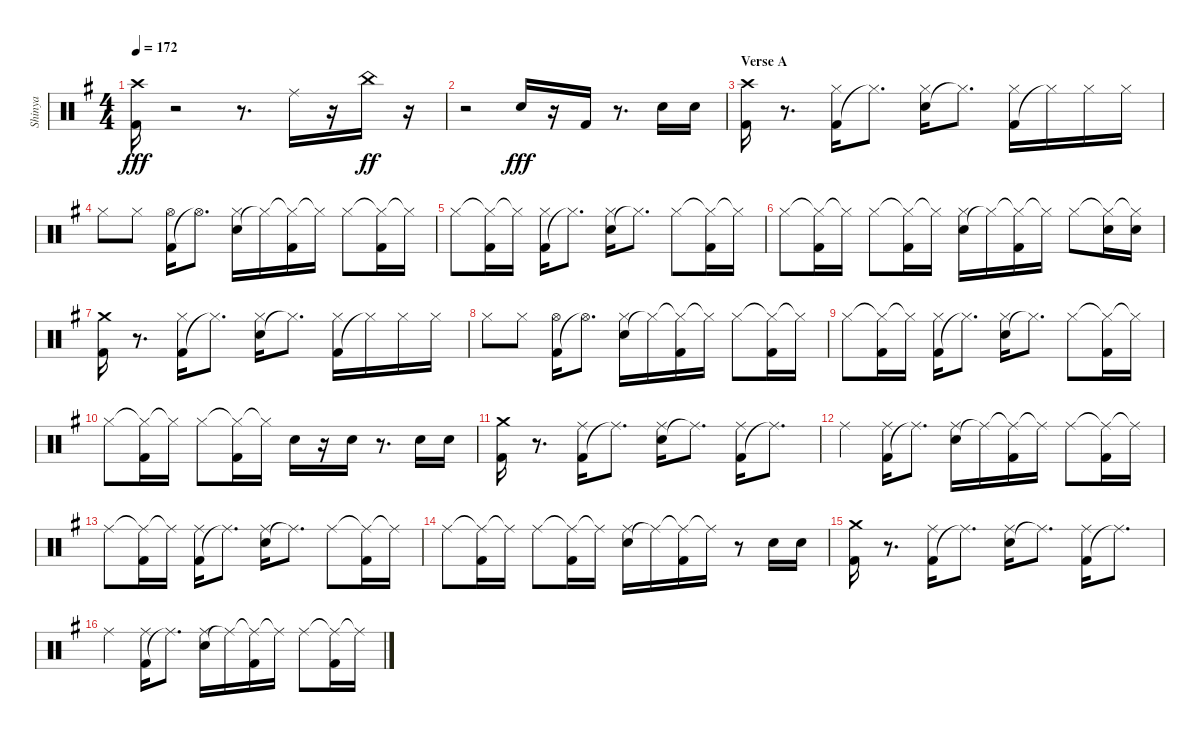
\track ("Shinya" "Shinya") {instrument percussion}
\staff {score}
\articulation defaults
\ts (4 4)
\tempo 172
\clef neutral
\ks eminor
("Kick (hit) 2" "Crash high (hit)").16{dy fff} r.2 r.8{d} "Ride (middle)".16 r.16 "China (hit)".16{dy ff} r.16 |
r.2 "Snare (hit) 2".16{dy fff} r.16 "Kick (hit) 2".16 r.8{d} "Snare (hit) 2".16 "Snare (hit) 2".16 |
\section ("" "Verse A")
("Kick (hit) 2" "Crash high (hit)").16 r.8{d} ("Kick (hit) 2" "Hi-Hat (closed)").16 "Hi-Hat (closed)"{t}.8{d} ("Snare (hit) 2" "Hi-Hat (closed)").16 "Hi-Hat (closed)"{t}.8{d} ("Kick (hit) 2" "Hi-Hat (closed)").16 "Hi-Hat (closed)"{t}.16 "Hi-Hat (closed)".16 "Hi-Hat (closed)".16 |
"Hi-Hat (closed)".8 "Hi-Hat (closed)".8 ("Kick (hit) 2" "Hi-Hat (open)").16 "Hi-Hat (open)"{t}.8{d} ("Snare (hit) 2" "Hi-Hat (closed)").16 "Hi-Hat (closed)"{t}.16 ("Hi-Hat (closed)"{t} "Kick (hit) 2").16 "Hi-Hat (closed)"{t}.16 "Hi-Hat (closed)".8 ("Hi-Hat (closed)"{t} "Kick (hit) 2").16 "Hi-Hat (closed)"{t}.16 |
"Hi-Hat (closed)".8 ("Hi-Hat (closed)"{t} "Kick (hit) 2").16 "Hi-Hat (closed)"{t}.16 ("Kick (hit) 2" "Hi-Hat (closed)").16 "Hi-Hat (closed)"{t}.8{d} ("Snare (hit) 2" "Hi-Hat (closed)").16 "Hi-Hat (closed)"{t}.8{d} "Hi-Hat (closed)".8 ("Hi-Hat (closed)"{t} "Kick (hit) 2").16 "Hi-Hat (closed)"{t}.16 |
"Hi-Hat (closed)".8 ("Hi-Hat (closed)"{t} "Kick (hit) 2").16 "Hi-Hat (closed)"{t}.16 "Hi-Hat (closed)".8 ("Hi-Hat (closed)"{t} "Kick (hit) 2").16 "Hi-Hat (closed)"{t}.16 ("Snare (hit) 2" "Hi-Hat (closed)").16 "Hi-Hat (closed)"{t}.16 ("Hi-Hat (closed)"{t} "Kick (hit) 2").16 "Hi-Hat (closed)"{t}.16 "Hi-Hat (closed)".8 ("Hi-Hat (closed)"{t} "Snare (hit) 2").16 ("Hi-Hat (closed)"{t} "Snare (hit) 2").16 |
("Kick (hit) 2" "Crash medium (hit)").16 r.8{d} ("Kick (hit) 2" "Hi-Hat (closed)").16 "Hi-Hat (closed)"{t}.8{d} ("Snare (hit) 2" "Hi-Hat (closed)").16 "Hi-Hat (closed)"{t}.8{d} ("Kick (hit) 2" "Hi-Hat (closed)").16 "Hi-Hat (closed)"{t}.16 "Hi-Hat (closed)".16 "Hi-Hat (closed)".16 |
"Hi-Hat (closed)".8 "Hi-Hat (closed)".8 ("Kick (hit) 2" "Hi-Hat (open)").16 "Hi-Hat (open)"{t}.8{d} ("Snare (hit) 2" "Hi-Hat (closed)").16 "Hi-Hat (closed)"{t}.16 ("Hi-Hat (closed)"{t} "Kick (hit) 2").16 "Hi-Hat (closed)"{t}.16 "Hi-Hat (closed)".8 ("Hi-Hat (closed)"{t} "Kick (hit) 2").16 "Hi-Hat (closed)"{t}.16 |
"Hi-Hat (closed)".8 ("Hi-Hat (closed)"{t} "Kick (hit) 2").16 "Hi-Hat (closed)"{t}.16 ("Kick (hit) 2" "Hi-Hat (closed)").16 "Hi-Hat (closed)"{t}.8{d} ("Snare (hit) 2" "Hi-Hat (closed)").16 "Hi-Hat (closed)"{t}.8{d} "Hi-Hat (closed)".8 ("Hi-Hat (closed)"{t} "Kick (hit) 2").16 "Hi-Hat (closed)"{t}.16 |
"Hi-Hat (closed)".8 ("Hi-Hat (closed)"{t} "Kick (hit) 2").16 "Hi-Hat (closed)"{t}.16 "Hi-Hat (closed)".8 ("Hi-Hat (closed)"{t} "Kick (hit) 2").16 "Hi-Hat (closed)"{t}.16 "Snare (hit) 2".16 r.16 "Snare (hit) 2".16 r.8{d} "Snare (hit) 2".16 "Snare (hit) 2".16 |
("Kick (hit) 2" "Crash medium (hit)").16 r.8{d} ("Kick (hit) 2" "Ride (middle)").16 "Ride (middle)"{t}.8{d} ("Snare (hit) 2" "Ride (middle)").16 "Ride (middle)"{t}.8{d} ("Kick (hit) 2" "Ride (middle)").16 "Ride (middle)"{t}.8{d} |
"Ride (middle)".4 ("Kick (hit) 2" "Ride (middle)").16 "Ride (middle)"{t}.8{d} ("Snare (hit) 2" "Ride (middle)").16 "Ride (middle)"{t}.16 ("Ride (middle)"{t} "Kick (hit) 2").16 "Ride (middle)"{t}.16 "Ride (middle)".8 ("Ride (middle)"{t} "Kick (hit) 2").16 "Ride (middle)"{t}.16 |
"Ride (middle)".8 ("Ride (middle)"{t} "Kick (hit) 2").16 "Ride (middle)"{t}.16 ("Kick (hit) 2" "Ride (middle)").16 "Ride (middle)"{t}.8{d} ("Snare (hit) 2" "Ride (middle)").16 "Ride (middle)"{t}.8{d} "Ride (middle)".8 ("Ride (middle)"{t} "Kick (hit) 2").16 "Ride (middle)"{t}.16 |
"Ride (middle)".8 ("Ride (middle)"{t} "Kick (hit) 2").16 "Ride (middle)"{t}.16 "Ride (middle)".8 ("Ride (middle)"{t} "Kick (hit) 2").16 "Ride (middle)"{t}.16 ("Snare (hit) 2" "Ride (middle)").16 "Ride (middle)"{t}.16 ("Ride (middle)"{t} "Kick (hit) 2").16 "Ride (middle)"{t}.16 r.8 "Snare (hit) 2".16 "Snare (hit) 2".16 |
("Kick (hit) 2" "Crash medium (hit)").16 r.8{d} ("Kick (hit) 2" "Ride (middle)").16 "Ride (middle)"{t}.8{d} ("Snare (hit) 2" "Ride (middle)").16 "Ride (middle)"{t}.8{d} ("Kick (hit) 2" "Ride (middle)").16 "Ride (middle)"{t}.8{d} |
"Ride (middle)".4 ("Kick (hit) 2" "Ride (middle)").16 "Ride (middle)"{t}.8{d} ("Snare (hit) 2" "Ride (middle)").16 "Ride (middle)"{t}.16 ("Ride (middle)"{t} "Kick (hit) 2").16 "Ride (middle)"{t}.16 "Ride (middle)".8 ("Ride (middle)"{t} "Kick (hit) 2").16 "Ride (middle)"{t}.16
